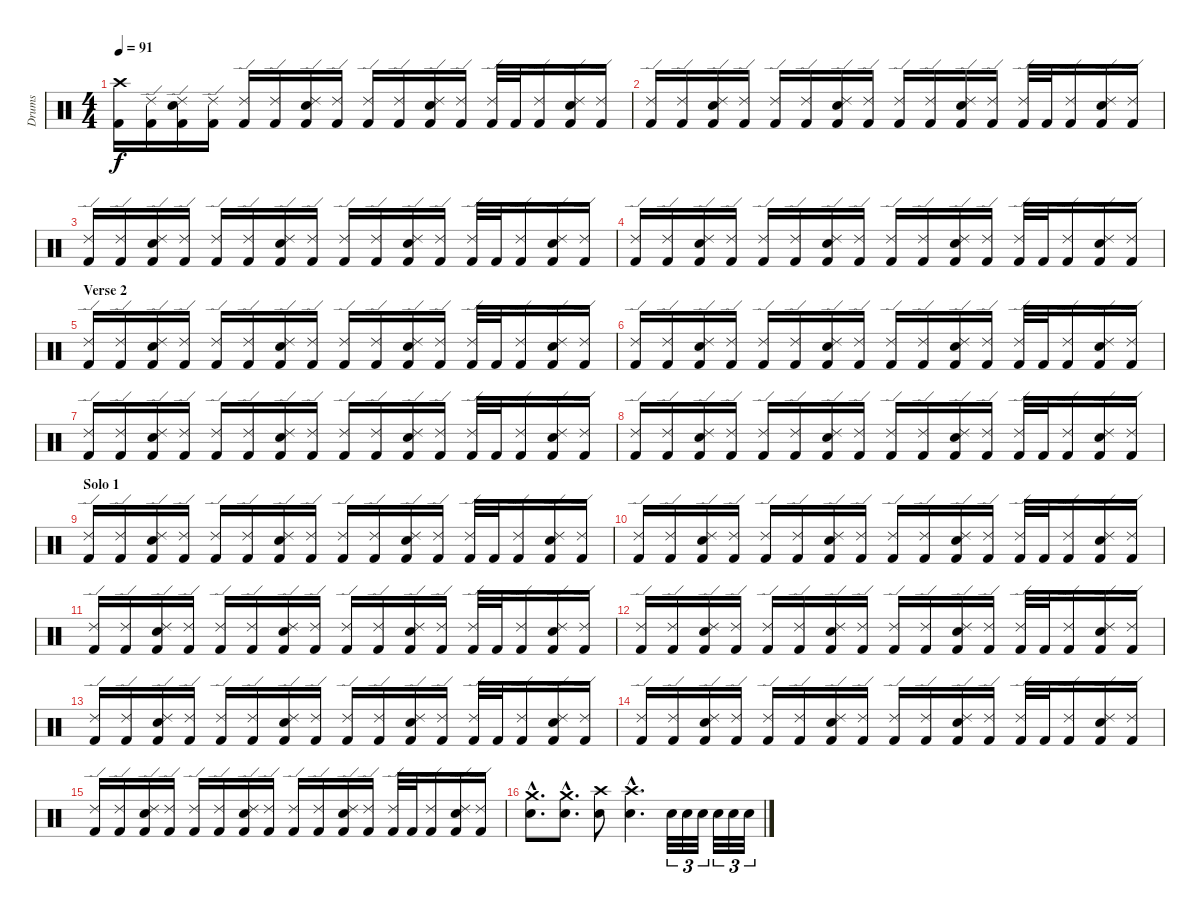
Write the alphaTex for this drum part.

\track ("Drums" "Drums") {instrument percussion}
\staff {score}
\articulation defaults
\ts (4 4)
\tempo 91
\clef neutral
\ks c
("Crash high (hit)" "Kick (hit) 2").16{dy f} ("Ride (edge) 2" "Kick (hit) 2").16 ("Ride (edge) 2" "Snare (hit) 2" "Kick (hit) 2").16 ("Ride (edge) 2" "Kick (hit) 2").16 ("Ride (edge) 2" "Kick (hit) 2").16 ("Ride (edge) 2" "Kick (hit) 2").16 ("Ride (edge) 2" "Snare (hit) 2" "Kick (hit) 2").16 ("Ride (edge) 2" "Kick (hit) 2").16 ("Ride (edge) 2" "Kick (hit) 2").16 ("Ride (edge) 2" "Kick (hit) 2").16 ("Ride (edge) 2" "Snare (hit) 2" "Kick (hit) 2").16 ("Ride (edge) 2" "Kick (hit) 2").16 ("Ride (edge) 2" "Kick (hit) 2").32 "Kick (hit) 2".32 ("Ride (edge) 2" "Kick (hit) 2").16 ("Ride (edge) 2" "Snare (hit) 2" "Kick (hit) 2").16 ("Ride (edge) 2" "Kick (hit) 2").16 |
("Ride (edge) 2" "Kick (hit) 2").16 ("Ride (edge) 2" "Kick (hit) 2").16 ("Ride (edge) 2" "Snare (hit) 2" "Kick (hit) 2").16 ("Ride (edge) 2" "Kick (hit) 2").16 ("Ride (edge) 2" "Kick (hit) 2").16 ("Ride (edge) 2" "Kick (hit) 2").16 ("Ride (edge) 2" "Snare (hit) 2" "Kick (hit) 2").16 ("Ride (edge) 2" "Kick (hit) 2").16 ("Ride (edge) 2" "Kick (hit) 2").16 ("Ride (edge) 2" "Kick (hit) 2").16 ("Ride (edge) 2" "Snare (hit) 2" "Kick (hit) 2").16 ("Ride (edge) 2" "Kick (hit) 2").16 ("Ride (edge) 2" "Kick (hit) 2").32 "Kick (hit) 2".32 ("Ride (edge) 2" "Kick (hit) 2").16 ("Ride (edge) 2" "Snare (hit) 2" "Kick (hit) 2").16 ("Ride (edge) 2" "Kick (hit) 2").16 |
("Ride (edge) 2" "Kick (hit) 2").16 ("Ride (edge) 2" "Kick (hit) 2").16 ("Ride (edge) 2" "Snare (hit) 2" "Kick (hit) 2").16 ("Ride (edge) 2" "Kick (hit) 2").16 ("Ride (edge) 2" "Kick (hit) 2").16 ("Ride (edge) 2" "Kick (hit) 2").16 ("Ride (edge) 2" "Snare (hit) 2" "Kick (hit) 2").16 ("Ride (edge) 2" "Kick (hit) 2").16 ("Ride (edge) 2" "Kick (hit) 2").16 ("Ride (edge) 2" "Kick (hit) 2").16 ("Ride (edge) 2" "Snare (hit) 2" "Kick (hit) 2").16 ("Ride (edge) 2" "Kick (hit) 2").16 ("Ride (edge) 2" "Kick (hit) 2").32 "Kick (hit) 2".32 ("Ride (edge) 2" "Kick (hit) 2").16 ("Ride (edge) 2" "Snare (hit) 2" "Kick (hit) 2").16 ("Ride (edge) 2" "Kick (hit) 2").16 |
("Ride (edge) 2" "Kick (hit) 2").16 ("Ride (edge) 2" "Kick (hit) 2").16 ("Ride (edge) 2" "Snare (hit) 2" "Kick (hit) 2").16 ("Ride (edge) 2" "Kick (hit) 2").16 ("Ride (edge) 2" "Kick (hit) 2").16 ("Ride (edge) 2" "Kick (hit) 2").16 ("Ride (edge) 2" "Snare (hit) 2" "Kick (hit) 2").16 ("Ride (edge) 2" "Kick (hit) 2").16 ("Ride (edge) 2" "Kick (hit) 2").16 ("Ride (edge) 2" "Kick (hit) 2").16 ("Ride (edge) 2" "Snare (hit) 2" "Kick (hit) 2").16 ("Ride (edge) 2" "Kick (hit) 2").16 ("Ride (edge) 2" "Kick (hit) 2").32 "Kick (hit) 2".32 ("Ride (edge) 2" "Kick (hit) 2").16 ("Ride (edge) 2" "Snare (hit) 2" "Kick (hit) 2").16 ("Ride (edge) 2" "Kick (hit) 2").16 |
\section ("" "Verse 2")
("Ride (edge) 2" "Kick (hit) 2").16 ("Ride (edge) 2" "Kick (hit) 2").16 ("Ride (edge) 2" "Snare (hit) 2" "Kick (hit) 2").16 ("Ride (edge) 2" "Kick (hit) 2").16 ("Ride (edge) 2" "Kick (hit) 2").16 ("Ride (edge) 2" "Kick (hit) 2").16 ("Ride (edge) 2" "Snare (hit) 2" "Kick (hit) 2").16 ("Ride (edge) 2" "Kick (hit) 2").16 ("Ride (edge) 2" "Kick (hit) 2").16 ("Ride (edge) 2" "Kick (hit) 2").16 ("Ride (edge) 2" "Snare (hit) 2" "Kick (hit) 2").16 ("Ride (edge) 2" "Kick (hit) 2").16 ("Ride (edge) 2" "Kick (hit) 2").32 "Kick (hit) 2".32 ("Ride (edge) 2" "Kick (hit) 2").16 ("Ride (edge) 2" "Snare (hit) 2" "Kick (hit) 2").16 ("Ride (edge) 2" "Kick (hit) 2").16 |
("Ride (edge) 2" "Kick (hit) 2").16 ("Ride (edge) 2" "Kick (hit) 2").16 ("Ride (edge) 2" "Snare (hit) 2" "Kick (hit) 2").16 ("Ride (edge) 2" "Kick (hit) 2").16 ("Ride (edge) 2" "Kick (hit) 2").16 ("Ride (edge) 2" "Kick (hit) 2").16 ("Ride (edge) 2" "Snare (hit) 2" "Kick (hit) 2").16 ("Ride (edge) 2" "Kick (hit) 2").16 ("Ride (edge) 2" "Kick (hit) 2").16 ("Ride (edge) 2" "Kick (hit) 2").16 ("Ride (edge) 2" "Snare (hit) 2" "Kick (hit) 2").16 ("Ride (edge) 2" "Kick (hit) 2").16 ("Ride (edge) 2" "Kick (hit) 2").32 "Kick (hit) 2".32 ("Ride (edge) 2" "Kick (hit) 2").16 ("Ride (edge) 2" "Snare (hit) 2" "Kick (hit) 2").16 ("Ride (edge) 2" "Kick (hit) 2").16 |
("Ride (edge) 2" "Kick (hit) 2").16 ("Ride (edge) 2" "Kick (hit) 2").16 ("Ride (edge) 2" "Snare (hit) 2" "Kick (hit) 2").16 ("Ride (edge) 2" "Kick (hit) 2").16 ("Ride (edge) 2" "Kick (hit) 2").16 ("Ride (edge) 2" "Kick (hit) 2").16 ("Ride (edge) 2" "Snare (hit) 2" "Kick (hit) 2").16 ("Ride (edge) 2" "Kick (hit) 2").16 ("Ride (edge) 2" "Kick (hit) 2").16 ("Ride (edge) 2" "Kick (hit) 2").16 ("Ride (edge) 2" "Snare (hit) 2" "Kick (hit) 2").16 ("Ride (edge) 2" "Kick (hit) 2").16 ("Ride (edge) 2" "Kick (hit) 2").32 "Kick (hit) 2".32 ("Ride (edge) 2" "Kick (hit) 2").16 ("Ride (edge) 2" "Snare (hit) 2" "Kick (hit) 2").16 ("Ride (edge) 2" "Kick (hit) 2").16 |
("Ride (edge) 2" "Kick (hit) 2").16 ("Ride (edge) 2" "Kick (hit) 2").16 ("Ride (edge) 2" "Snare (hit) 2" "Kick (hit) 2").16 ("Ride (edge) 2" "Kick (hit) 2").16 ("Ride (edge) 2" "Kick (hit) 2").16 ("Ride (edge) 2" "Kick (hit) 2").16 ("Ride (edge) 2" "Snare (hit) 2" "Kick (hit) 2").16 ("Ride (edge) 2" "Kick (hit) 2").16 ("Ride (edge) 2" "Kick (hit) 2").16 ("Ride (edge) 2" "Kick (hit) 2").16 ("Ride (edge) 2" "Snare (hit) 2" "Kick (hit) 2").16 ("Ride (edge) 2" "Kick (hit) 2").16 ("Ride (edge) 2" "Kick (hit) 2").32 "Kick (hit) 2".32 ("Ride (edge) 2" "Kick (hit) 2").16 ("Ride (edge) 2" "Snare (hit) 2" "Kick (hit) 2").16 ("Ride (edge) 2" "Kick (hit) 2").16 |
\section ("" "Solo 1")
("Ride (edge) 2" "Kick (hit) 2").16 ("Ride (edge) 2" "Kick (hit) 2").16 ("Ride (edge) 2" "Snare (hit) 2" "Kick (hit) 2").16 ("Ride (edge) 2" "Kick (hit) 2").16 ("Ride (edge) 2" "Kick (hit) 2").16 ("Ride (edge) 2" "Kick (hit) 2").16 ("Ride (edge) 2" "Snare (hit) 2" "Kick (hit) 2").16 ("Ride (edge) 2" "Kick (hit) 2").16 ("Ride (edge) 2" "Kick (hit) 2").16 ("Ride (edge) 2" "Kick (hit) 2").16 ("Ride (edge) 2" "Snare (hit) 2" "Kick (hit) 2").16 ("Ride (edge) 2" "Kick (hit) 2").16 ("Ride (edge) 2" "Kick (hit) 2").32 "Kick (hit) 2".32 ("Ride (edge) 2" "Kick (hit) 2").16 ("Ride (edge) 2" "Snare (hit) 2" "Kick (hit) 2").16 ("Ride (edge) 2" "Kick (hit) 2").16 |
("Ride (edge) 2" "Kick (hit) 2").16 ("Ride (edge) 2" "Kick (hit) 2").16 ("Ride (edge) 2" "Snare (hit) 2" "Kick (hit) 2").16 ("Ride (edge) 2" "Kick (hit) 2").16 ("Ride (edge) 2" "Kick (hit) 2").16 ("Ride (edge) 2" "Kick (hit) 2").16 ("Ride (edge) 2" "Snare (hit) 2" "Kick (hit) 2").16 ("Ride (edge) 2" "Kick (hit) 2").16 ("Ride (edge) 2" "Kick (hit) 2").16 ("Ride (edge) 2" "Kick (hit) 2").16 ("Ride (edge) 2" "Snare (hit) 2" "Kick (hit) 2").16 ("Ride (edge) 2" "Kick (hit) 2").16 ("Ride (edge) 2" "Kick (hit) 2").32 "Kick (hit) 2".32 ("Ride (edge) 2" "Kick (hit) 2").16 ("Ride (edge) 2" "Snare (hit) 2" "Kick (hit) 2").16 ("Ride (edge) 2" "Kick (hit) 2").16 |
("Ride (edge) 2" "Kick (hit) 2").16 ("Ride (edge) 2" "Kick (hit) 2").16 ("Ride (edge) 2" "Snare (hit) 2" "Kick (hit) 2").16 ("Ride (edge) 2" "Kick (hit) 2").16 ("Ride (edge) 2" "Kick (hit) 2").16 ("Ride (edge) 2" "Kick (hit) 2").16 ("Ride (edge) 2" "Snare (hit) 2" "Kick (hit) 2").16 ("Ride (edge) 2" "Kick (hit) 2").16 ("Ride (edge) 2" "Kick (hit) 2").16 ("Ride (edge) 2" "Kick (hit) 2").16 ("Ride (edge) 2" "Snare (hit) 2" "Kick (hit) 2").16 ("Ride (edge) 2" "Kick (hit) 2").16 ("Ride (edge) 2" "Kick (hit) 2").32 "Kick (hit) 2".32 ("Ride (edge) 2" "Kick (hit) 2").16 ("Ride (edge) 2" "Snare (hit) 2" "Kick (hit) 2").16 ("Ride (edge) 2" "Kick (hit) 2").16 |
("Ride (edge) 2" "Kick (hit) 2").16 ("Ride (edge) 2" "Kick (hit) 2").16 ("Ride (edge) 2" "Snare (hit) 2" "Kick (hit) 2").16 ("Ride (edge) 2" "Kick (hit) 2").16 ("Ride (edge) 2" "Kick (hit) 2").16 ("Ride (edge) 2" "Kick (hit) 2").16 ("Ride (edge) 2" "Snare (hit) 2" "Kick (hit) 2").16 ("Ride (edge) 2" "Kick (hit) 2").16 ("Ride (edge) 2" "Kick (hit) 2").16 ("Ride (edge) 2" "Kick (hit) 2").16 ("Ride (edge) 2" "Snare (hit) 2" "Kick (hit) 2").16 ("Ride (edge) 2" "Kick (hit) 2").16 ("Ride (edge) 2" "Kick (hit) 2").32 "Kick (hit) 2".32 ("Ride (edge) 2" "Kick (hit) 2").16 ("Ride (edge) 2" "Snare (hit) 2" "Kick (hit) 2").16 ("Ride (edge) 2" "Kick (hit) 2").16 |
("Ride (edge) 2" "Kick (hit) 2").16 ("Ride (edge) 2" "Kick (hit) 2").16 ("Ride (edge) 2" "Snare (hit) 2" "Kick (hit) 2").16 ("Ride (edge) 2" "Kick (hit) 2").16 ("Ride (edge) 2" "Kick (hit) 2").16 ("Ride (edge) 2" "Kick (hit) 2").16 ("Ride (edge) 2" "Snare (hit) 2" "Kick (hit) 2").16 ("Ride (edge) 2" "Kick (hit) 2").16 ("Ride (edge) 2" "Kick (hit) 2").16 ("Ride (edge) 2" "Kick (hit) 2").16 ("Ride (edge) 2" "Snare (hit) 2" "Kick (hit) 2").16 ("Ride (edge) 2" "Kick (hit) 2").16 ("Ride (edge) 2" "Kick (hit) 2").32 "Kick (hit) 2".32 ("Ride (edge) 2" "Kick (hit) 2").16 ("Ride (edge) 2" "Snare (hit) 2" "Kick (hit) 2").16 ("Ride (edge) 2" "Kick (hit) 2").16 |
("Ride (edge) 2" "Kick (hit) 2").16 ("Ride (edge) 2" "Kick (hit) 2").16 ("Ride (edge) 2" "Snare (hit) 2" "Kick (hit) 2").16 ("Ride (edge) 2" "Kick (hit) 2").16 ("Ride (edge) 2" "Kick (hit) 2").16 ("Ride (edge) 2" "Kick (hit) 2").16 ("Ride (edge) 2" "Snare (hit) 2" "Kick (hit) 2").16 ("Ride (edge) 2" "Kick (hit) 2").16 ("Ride (edge) 2" "Kick (hit) 2").16 ("Ride (edge) 2" "Kick (hit) 2").16 ("Ride (edge) 2" "Snare (hit) 2" "Kick (hit) 2").16 ("Ride (edge) 2" "Kick (hit) 2").16 ("Ride (edge) 2" "Kick (hit) 2").32 "Kick (hit) 2".32 ("Ride (edge) 2" "Kick (hit) 2").16 ("Ride (edge) 2" "Snare (hit) 2" "Kick (hit) 2").16 ("Ride (edge) 2" "Kick (hit) 2").16 |
("Ride (edge) 2" "Kick (hit) 2").16 ("Ride (edge) 2" "Kick (hit) 2").16 ("Ride (edge) 2" "Snare (hit) 2" "Kick (hit) 2").16 ("Ride (edge) 2" "Kick (hit) 2").16 ("Ride (edge) 2" "Kick (hit) 2").16 ("Ride (edge) 2" "Kick (hit) 2").16 ("Ride (edge) 2" "Snare (hit) 2" "Kick (hit) 2").16 ("Ride (edge) 2" "Kick (hit) 2").16 ("Ride (edge) 2" "Kick (hit) 2").16 ("Ride (edge) 2" "Kick (hit) 2").16 ("Ride (edge) 2" "Snare (hit) 2" "Kick (hit) 2").16 ("Ride (edge) 2" "Kick (hit) 2").16 ("Ride (edge) 2" "Kick (hit) 2").32 "Kick (hit) 2".32 ("Ride (edge) 2" "Kick (hit) 2").16 ("Ride (edge) 2" "Snare (hit) 2" "Kick (hit) 2").16 ("Ride (edge) 2" "Kick (hit) 2").16 |
("Crash medium (hit)"{hac} "Snare (hit) 2"{hac}).8{d} ("Crash medium (hit)"{hac} "Snare (hit) 2"{hac}).8{d} ("Crash high (hit)" "Snare (hit) 2").8 ("Crash high (hit)"{hac} "Snare (hit) 2"{hac}).4{d} "Snare (hit) 2".32{tu (3 2)} "Snare (hit) 2".32{tu (3 2)} "Snare (hit) 2".32{tu (3 2)} "Snare (hit) 2".32{tu (3 2)} "Snare (hit) 2".32{tu (3 2)} "Snare (hit) 2".32{tu (3 2)}
